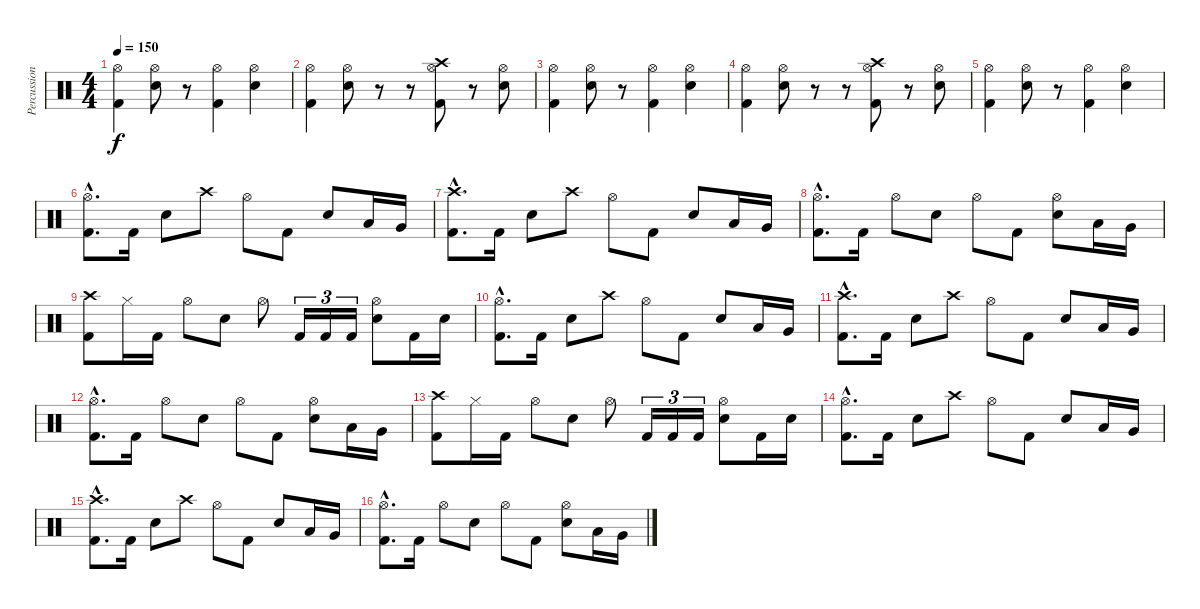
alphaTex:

\track ("Percussion" "Percussion") {instrument percussion}
\staff {score}
\articulation defaults
\ts (4 4)
\tempo 150
\clef neutral
\ks c
("Hi-Hat (open)" "Kick (hit) 2").4{dy f} ("Hi-Hat (open)" "Electric Snare (hit)").8 r.8 ("Hi-Hat (open)" "Kick (hit) 2").4 ("Hi-Hat (open)" "Electric Snare (hit)").4 |
("Hi-Hat (open)" "Kick (hit) 2").4 ("Hi-Hat (open)" "Electric Snare (hit)").8 r.8 r.8 ("Crash high (hit)" "Hi-Hat (open)" "Kick (hit) 2").8 r.8 ("Hi-Hat (open)" "Electric Snare (hit)").8 |
("Hi-Hat (open)" "Kick (hit) 2").4 ("Hi-Hat (open)" "Electric Snare (hit)").8 r.8 ("Hi-Hat (open)" "Kick (hit) 2").4 ("Hi-Hat (open)" "Electric Snare (hit)").4 |
("Hi-Hat (open)" "Kick (hit) 2").4 ("Hi-Hat (open)" "Electric Snare (hit)").8 r.8 r.8 ("Crash high (hit)" "Hi-Hat (open)" "Kick (hit) 2").8 r.8 ("Hi-Hat (open)" "Electric Snare (hit)").8 |
("Hi-Hat (open)" "Kick (hit) 2").4 ("Hi-Hat (open)" "Electric Snare (hit)").8 r.8 ("Hi-Hat (open)" "Kick (hit) 2").4 ("Hi-Hat (open)" "Electric Snare (hit)").4 |
("Hi-Hat (open)"{hac} "Kick (hit) 2"{hac}).8{d} "Kick (hit) 2".16 "Electric Snare (hit)".8 "Crash high (hit)".8 "Hi-Hat (open)".8 "Kick (hit) 2".8 "Electric Snare (hit)".8 "Low Tom (hit)".16 "Very Low Tom (hit)".16 |
("Crash high (hit)"{hac} "Kick (hit) 2"{hac}).8{d} "Kick (hit) 2".16 "Electric Snare (hit)".8 "Crash high (hit)".8 "Hi-Hat (open)".8 "Kick (hit) 2".8 "Electric Snare (hit)".8 "Low Tom (hit)".16 "Very Low Tom (hit)".16 |
("Hi-Hat (open)"{hac} "Kick (hit) 2"{hac}).8{d} "Kick (hit) 2".16 "Hi-Hat (open)".8 "Electric Snare (hit)".8 "Hi-Hat (open)".8 "Kick (hit) 2".8 ("Hi-Hat (open)" "Electric Snare (hit)").8 "Low Tom (hit)".16 "Very Low Tom (hit)".16 |
("Crash high (hit)" "Kick (hit) 2").8 "Hi-Hat (closed)".16 "Kick (hit) 2".16 "Hi-Hat (open)".8 "Electric Snare (hit)".8 "Hi-Hat (open)".8 "Kick (hit) 2".16{tu (3 2)} "Kick (hit) 2".16{tu (3 2)} "Kick (hit) 2".16{tu (3 2)} ("Hi-Hat (open)" "Electric Snare (hit)").8 "Kick (hit) 2".16 "Electric Snare (hit)".16 |
("Hi-Hat (open)"{hac} "Kick (hit) 2"{hac}).8{d} "Kick (hit) 2".16 "Electric Snare (hit)".8 "Crash high (hit)".8 "Hi-Hat (open)".8 "Kick (hit) 2".8 "Electric Snare (hit)".8 "Low Tom (hit)".16 "Very Low Tom (hit)".16 |
("Crash high (hit)"{hac} "Kick (hit) 2"{hac}).8{d} "Kick (hit) 2".16 "Electric Snare (hit)".8 "Crash high (hit)".8 "Hi-Hat (open)".8 "Kick (hit) 2".8 "Electric Snare (hit)".8 "Low Tom (hit)".16 "Very Low Tom (hit)".16 |
("Hi-Hat (open)"{hac} "Kick (hit) 2"{hac}).8{d} "Kick (hit) 2".16 "Hi-Hat (open)".8 "Electric Snare (hit)".8 "Hi-Hat (open)".8 "Kick (hit) 2".8 ("Hi-Hat (open)" "Electric Snare (hit)").8 "Low Tom (hit)".16 "Very Low Tom (hit)".16 |
("Crash high (hit)" "Kick (hit) 2").8 "Hi-Hat (closed)".16 "Kick (hit) 2".16 "Hi-Hat (open)".8 "Electric Snare (hit)".8 "Hi-Hat (open)".8 "Kick (hit) 2".16{tu (3 2)} "Kick (hit) 2".16{tu (3 2)} "Kick (hit) 2".16{tu (3 2)} ("Hi-Hat (open)" "Electric Snare (hit)").8 "Kick (hit) 2".16 "Electric Snare (hit)".16 |
("Hi-Hat (open)"{hac} "Kick (hit) 2"{hac}).8{d} "Kick (hit) 2".16 "Electric Snare (hit)".8 "Crash high (hit)".8 "Hi-Hat (open)".8 "Kick (hit) 2".8 "Electric Snare (hit)".8 "Low Tom (hit)".16 "Very Low Tom (hit)".16 |
("Crash high (hit)"{hac} "Kick (hit) 2"{hac}).8{d} "Kick (hit) 2".16 "Electric Snare (hit)".8 "Crash high (hit)".8 "Hi-Hat (open)".8 "Kick (hit) 2".8 "Electric Snare (hit)".8 "Low Tom (hit)".16 "Very Low Tom (hit)".16 |
("Hi-Hat (open)"{hac} "Kick (hit) 2"{hac}).8{d} "Kick (hit) 2".16 "Hi-Hat (open)".8 "Electric Snare (hit)".8 "Hi-Hat (open)".8 "Kick (hit) 2".8 ("Hi-Hat (open)" "Electric Snare (hit)").8 "Low Tom (hit)".16 "Very Low Tom (hit)".16
